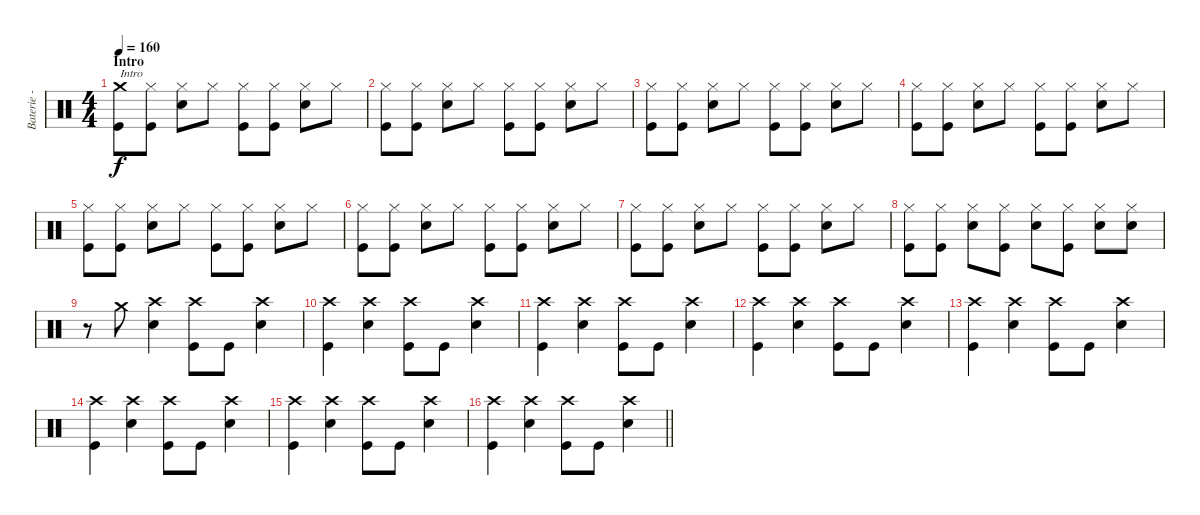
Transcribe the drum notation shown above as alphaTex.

\track ("Baterie - Alex" "Baterie - ") {instrument percussion}
\staff {score}
\articulation defaults
\ts (4 4)
\section ("" "Intro")
\tempo 160
\clef neutral
\ks c
("Crash medium (hit)" "Kick (hit)").8{txt "Intro" dy f} ("Hi-Hat (closed)" "Kick (hit)").8 ("Hi-Hat (closed)" "Electric Snare (hit)").8 "Hi-Hat (closed)".8 ("Hi-Hat (closed)" "Kick (hit)").8 ("Hi-Hat (closed)" "Kick (hit)").8 ("Hi-Hat (closed)" "Electric Snare (hit)").8 "Hi-Hat (closed)".8 |
("Hi-Hat (closed)" "Kick (hit)").8 ("Hi-Hat (closed)" "Kick (hit)").8 ("Hi-Hat (closed)" "Electric Snare (hit)").8 "Hi-Hat (closed)".8 ("Hi-Hat (closed)" "Kick (hit)").8 ("Hi-Hat (closed)" "Kick (hit)").8 ("Hi-Hat (closed)" "Electric Snare (hit)").8 "Hi-Hat (closed)".8 |
("Hi-Hat (closed)" "Kick (hit)").8 ("Hi-Hat (closed)" "Kick (hit)").8 ("Hi-Hat (closed)" "Electric Snare (hit)").8 "Hi-Hat (closed)".8 ("Hi-Hat (closed)" "Kick (hit)").8 ("Hi-Hat (closed)" "Kick (hit)").8 ("Hi-Hat (closed)" "Electric Snare (hit)").8 "Hi-Hat (closed)".8 |
("Hi-Hat (closed)" "Kick (hit)").8 ("Hi-Hat (closed)" "Kick (hit)").8 ("Hi-Hat (closed)" "Electric Snare (hit)").8 "Hi-Hat (closed)".8 ("Hi-Hat (closed)" "Kick (hit)").8 ("Hi-Hat (closed)" "Kick (hit)").8 ("Hi-Hat (closed)" "Electric Snare (hit)").8 "Hi-Hat (closed)".8 |
("Hi-Hat (closed)" "Kick (hit)").8 ("Hi-Hat (closed)" "Kick (hit)").8 ("Hi-Hat (closed)" "Electric Snare (hit)").8 "Hi-Hat (closed)".8 ("Hi-Hat (closed)" "Kick (hit)").8 ("Hi-Hat (closed)" "Kick (hit)").8 ("Hi-Hat (closed)" "Electric Snare (hit)").8 "Hi-Hat (closed)".8 |
("Hi-Hat (closed)" "Kick (hit)").8 ("Hi-Hat (closed)" "Kick (hit)").8 ("Hi-Hat (closed)" "Electric Snare (hit)").8 "Hi-Hat (closed)".8 ("Hi-Hat (closed)" "Kick (hit)").8 ("Hi-Hat (closed)" "Kick (hit)").8 ("Hi-Hat (closed)" "Electric Snare (hit)").8 "Hi-Hat (closed)".8 |
("Hi-Hat (closed)" "Kick (hit)").8 ("Hi-Hat (closed)" "Kick (hit)").8 ("Hi-Hat (closed)" "Electric Snare (hit)").8 "Hi-Hat (closed)".8 ("Hi-Hat (closed)" "Kick (hit)").8 ("Hi-Hat (closed)" "Kick (hit)").8 ("Hi-Hat (closed)" "Electric Snare (hit)").8 "Hi-Hat (closed)".8 |
("Hi-Hat (closed)" "Kick (hit)").8 ("Hi-Hat (closed)" "Kick (hit)").8 ("Hi-Hat (closed)" "Electric Snare (hit)").8 ("Hi-Hat (closed)" "Kick (hit)").8 ("Hi-Hat (closed)" "Electric Snare (hit)").8 ("Hi-Hat (closed)" "Kick (hit)").8 ("Hi-Hat (closed)" "Electric Snare (hit)").8 ("Hi-Hat (closed)" "Electric Snare (hit)").8 |
r.8 "Crash medium (hit)".8 ("Crash high (hit)" "Electric Snare (hit)").4 ("Crash high (hit)" "Kick (hit)").8 "Kick (hit)".8 ("Crash high (hit)" "Electric Snare (hit)").4 |
("Crash high (hit)" "Kick (hit)").4 ("Crash high (hit)" "Electric Snare (hit)").4 ("Crash high (hit)" "Kick (hit)").8 "Kick (hit)".8 ("Crash high (hit)" "Electric Snare (hit)").4 |
("Crash high (hit)" "Kick (hit)").4 ("Crash high (hit)" "Electric Snare (hit)").4 ("Crash high (hit)" "Kick (hit)").8 "Kick (hit)".8 ("Crash high (hit)" "Electric Snare (hit)").4 |
("Crash high (hit)" "Kick (hit)").4 ("Crash high (hit)" "Electric Snare (hit)").4 ("Crash high (hit)" "Kick (hit)").8 "Kick (hit)".8 ("Crash high (hit)" "Electric Snare (hit)").4 |
("Crash high (hit)" "Kick (hit)").4 ("Crash high (hit)" "Electric Snare (hit)").4 ("Crash high (hit)" "Kick (hit)").8 "Kick (hit)".8 ("Crash high (hit)" "Electric Snare (hit)").4 |
("Crash high (hit)" "Kick (hit)").4 ("Crash high (hit)" "Electric Snare (hit)").4 ("Crash high (hit)" "Kick (hit)").8 "Kick (hit)".8 ("Crash high (hit)" "Electric Snare (hit)").4 |
("Crash high (hit)" "Kick (hit)").4 ("Crash high (hit)" "Electric Snare (hit)").4 ("Crash high (hit)" "Kick (hit)").8 "Kick (hit)".8 ("Crash high (hit)" "Electric Snare (hit)").4 |
\barLineRight lightlight
("Crash high (hit)" "Kick (hit)").4 ("Crash high (hit)" "Electric Snare (hit)").4 ("Crash high (hit)" "Kick (hit)").8 "Kick (hit)".8 ("Crash high (hit)" "Electric Snare (hit)").4
